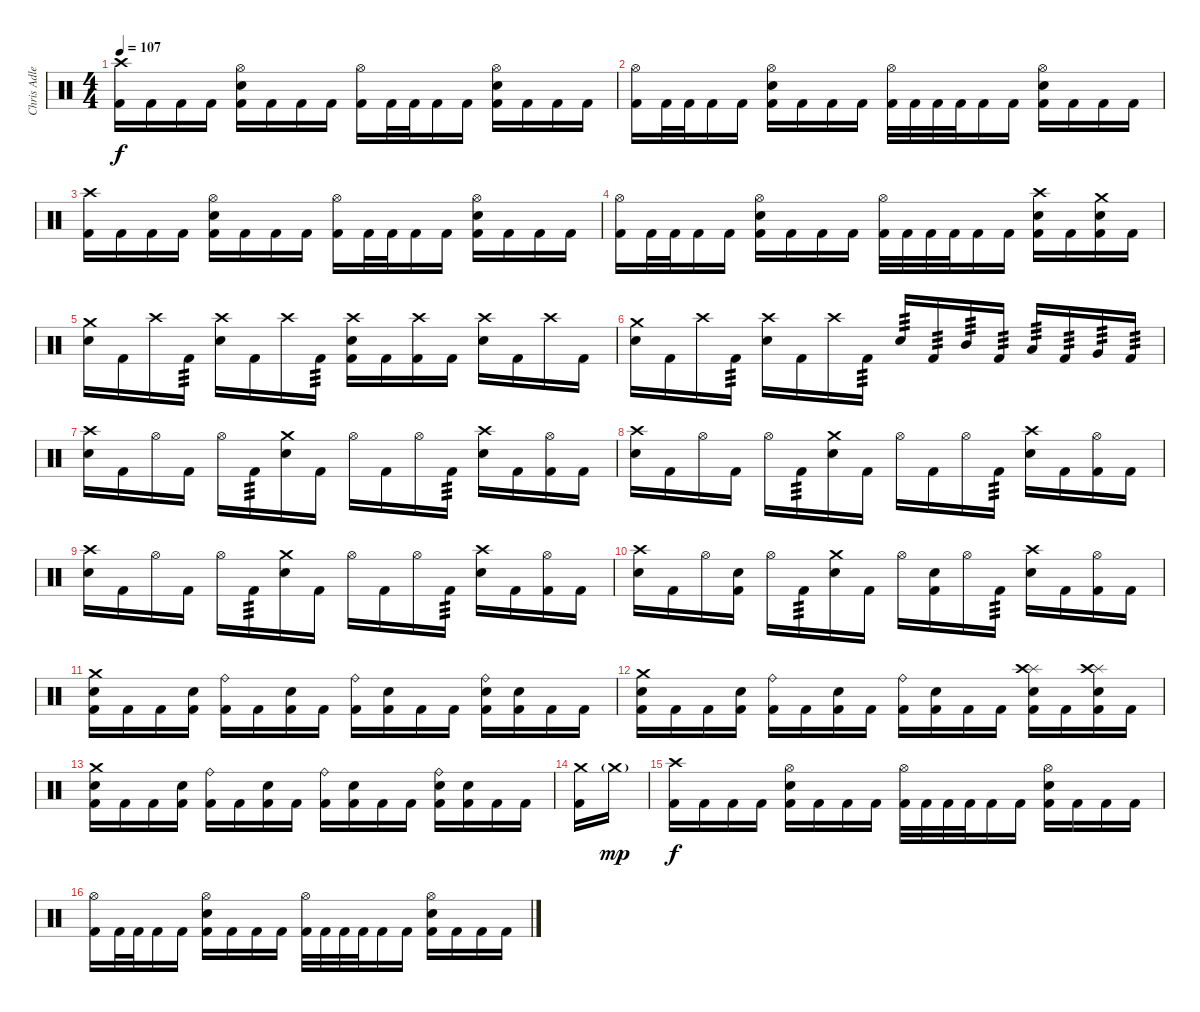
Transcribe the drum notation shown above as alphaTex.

\track ("Chris Adler" "Chris Adle") {instrument percussion}
\staff {score}
\articulation defaults
\ts (4 4)
\tempo 107
\clef neutral
\ks c
("Kick (hit) 2" "Crash high (hit)").16{dy f} "Kick (hit) 2".16 "Kick (hit) 2".16 "Kick (hit) 2".16 ("Kick (hit) 2" "Electric Snare (hit)" "Hi-Hat (open)").16 "Kick (hit) 2".16 "Kick (hit) 2".16 "Kick (hit) 2".16 ("Kick (hit) 2" "Hi-Hat (open)").16 "Kick (hit) 2".32 "Kick (hit) 2".32 "Kick (hit) 2".16 "Kick (hit) 2".16 ("Kick (hit) 2" "Electric Snare (hit)" "Hi-Hat (open)").16 "Kick (hit) 2".16 "Kick (hit) 2".16 "Kick (hit) 2".16 |
("Kick (hit) 2" "Hi-Hat (open)").16 "Kick (hit) 2".32 "Kick (hit) 2".32 "Kick (hit) 2".16 "Kick (hit) 2".16 ("Kick (hit) 2" "Electric Snare (hit)" "Hi-Hat (open)").16 "Kick (hit) 2".16 "Kick (hit) 2".16 "Kick (hit) 2".16 ("Kick (hit) 2" "Hi-Hat (open)").32 "Kick (hit) 2".32 "Kick (hit) 2".32 "Kick (hit) 2".32 "Kick (hit) 2".16 "Kick (hit) 2".16 ("Kick (hit) 2" "Electric Snare (hit)" "Hi-Hat (open)").16 "Kick (hit) 2".16 "Kick (hit) 2".16 "Kick (hit) 2".16 |
("Kick (hit) 2" "Crash high (hit)").16 "Kick (hit) 2".16 "Kick (hit) 2".16 "Kick (hit) 2".16 ("Kick (hit) 2" "Electric Snare (hit)" "Hi-Hat (open)").16 "Kick (hit) 2".16 "Kick (hit) 2".16 "Kick (hit) 2".16 ("Kick (hit) 2" "Hi-Hat (open)").16 "Kick (hit) 2".32 "Kick (hit) 2".32 "Kick (hit) 2".16 "Kick (hit) 2".16 ("Kick (hit) 2" "Electric Snare (hit)" "Hi-Hat (open)").16 "Kick (hit) 2".16 "Kick (hit) 2".16 "Kick (hit) 2".16 |
("Kick (hit) 2" "Hi-Hat (open)").16 "Kick (hit) 2".32 "Kick (hit) 2".32 "Kick (hit) 2".16 "Kick (hit) 2".16 ("Kick (hit) 2" "Electric Snare (hit)" "Hi-Hat (open)").16 "Kick (hit) 2".16 "Kick (hit) 2".16 "Kick (hit) 2".16 ("Kick (hit) 2" "Hi-Hat (open)").32 "Kick (hit) 2".32 "Kick (hit) 2".32 "Kick (hit) 2".32 "Kick (hit) 2".16 "Kick (hit) 2".16 ("Kick (hit) 2" "Electric Snare (hit)" "Crash high (hit)").16 "Kick (hit) 2".16 ("Kick (hit) 2" "Electric Snare (hit)" "Crash medium (hit)").16 "Kick (hit) 2".16 |
("Electric Snare (hit)" "Crash medium (hit)").16 "Kick (hit) 2".16 "Crash high (hit)".16 "Kick (hit) 2".16{tp 3} ("Electric Snare (hit)" "Crash high (hit)").16 "Kick (hit) 2".16 "Crash high (hit)".16 "Kick (hit) 2".16{tp 3} ("Kick (hit) 2" "Electric Snare (hit)" "Crash high (hit)").16 "Kick (hit) 2".16 ("Kick (hit) 2" "Crash high (hit)").16 "Kick (hit) 2".16 ("Electric Snare (hit)" "Crash high (hit)").16 "Kick (hit) 2".16 "Crash high (hit)".16 "Kick (hit) 2".16 |
("Electric Snare (hit)" "Crash medium (hit)").16 "Kick (hit) 2".16 "Crash high (hit)".16 "Kick (hit) 2".16{tp 3} ("Electric Snare (hit)" "Crash high (hit)").16 "Kick (hit) 2".16 "Crash high (hit)".16 "Kick (hit) 2".16{tp 3} "Electric Snare (hit)".16{tp 3} "Kick (hit) 2".16{tp 3} "Mid Tom (hit)".16{tp 3} "Kick (hit) 2".16{tp 3} "Low Tom (hit)".16{tp 3} "Kick (hit) 2".16{tp 3} "Very Low Tom (hit)".16{tp 3} "Kick (hit) 2".16{tp 3} |
("Electric Snare (hit)" "Crash high (hit)").16 "Kick (hit) 2".16 "Hi-Hat (open)".16 "Kick (hit) 2".16 "Hi-Hat (open)".16 "Kick (hit) 2".16{tp 3} ("Electric Snare (hit)" "Crash medium (hit)").16 "Kick (hit) 2".16 "Hi-Hat (open)".16 "Kick (hit) 2".16 "Hi-Hat (open)".16 "Kick (hit) 2".16{tp 3} ("Electric Snare (hit)" "Crash high (hit)").16 "Kick (hit) 2".16 ("Kick (hit) 2" "Hi-Hat (open)").16 "Kick (hit) 2".16 |
("Electric Snare (hit)" "Crash high (hit)").16 "Kick (hit) 2".16 "Hi-Hat (open)".16 "Kick (hit) 2".16 "Hi-Hat (open)".16 "Kick (hit) 2".16{tp 3} ("Electric Snare (hit)" "Crash medium (hit)").16 "Kick (hit) 2".16 "Hi-Hat (open)".16 "Kick (hit) 2".16 "Hi-Hat (open)".16 "Kick (hit) 2".16{tp 3} ("Electric Snare (hit)" "Crash high (hit)").16 "Kick (hit) 2".16 ("Kick (hit) 2" "Hi-Hat (open)").16 "Kick (hit) 2".16 |
("Electric Snare (hit)" "Crash high (hit)").16 "Kick (hit) 2".16 "Hi-Hat (open)".16 "Kick (hit) 2".16 "Hi-Hat (open)".16 "Kick (hit) 2".16{tp 3} ("Electric Snare (hit)" "Crash medium (hit)").16 "Kick (hit) 2".16 "Hi-Hat (open)".16 "Kick (hit) 2".16 "Hi-Hat (open)".16 "Kick (hit) 2".16{tp 3} ("Electric Snare (hit)" "Crash high (hit)").16 "Kick (hit) 2".16 ("Kick (hit) 2" "Hi-Hat (open)").16 "Kick (hit) 2".16 |
("Electric Snare (hit)" "Crash high (hit)").16 "Kick (hit) 2".16 "Hi-Hat (open)".16 ("Kick (hit) 2" "Electric Snare (hit)").16 "Hi-Hat (open)".16 "Kick (hit) 2".16{tp 3} ("Electric Snare (hit)" "Crash medium (hit)").16 "Kick (hit) 2".16 "Hi-Hat (open)".16 ("Kick (hit) 2" "Electric Snare (hit)").16 "Hi-Hat (open)".16 "Kick (hit) 2".16{tp 3} ("Electric Snare (hit)" "Crash high (hit)").16 "Kick (hit) 2".16 ("Kick (hit) 2" "Hi-Hat (open)").16 "Kick (hit) 2".16 |
("Kick (hit) 2" "Electric Snare (hit)" "Crash medium (hit)").16 "Kick (hit) 2".16 "Kick (hit) 2".16 ("Kick (hit) 2" "Electric Snare (hit)").16 ("Kick (hit) 2" "Ride (bell)").16 "Kick (hit) 2".16 ("Kick (hit) 2" "Electric Snare (hit)").16 "Kick (hit) 2".16 ("Kick (hit) 2" "Ride (bell)").16 ("Kick (hit) 2" "Electric Snare (hit)").16 "Kick (hit) 2".16 "Kick (hit) 2".16 ("Kick (hit) 2" "Electric Snare (hit)" "Ride (bell)").16 ("Kick (hit) 2" "Electric Snare (hit)").16 "Kick (hit) 2".16 "Kick (hit) 2".16 |
("Kick (hit) 2" "Electric Snare (hit)" "Crash medium (hit)").16 "Kick (hit) 2".16 "Kick (hit) 2".16 ("Kick (hit) 2" "Electric Snare (hit)").16 ("Kick (hit) 2" "Ride (bell)").16 "Kick (hit) 2".16 ("Kick (hit) 2" "Electric Snare (hit)").16 "Kick (hit) 2".16 ("Kick (hit) 2" "Ride (bell)").16 ("Kick (hit) 2" "Electric Snare (hit)").16 "Kick (hit) 2".16 "Kick (hit) 2".16 ("Kick (hit) 2" "Electric Snare (hit)" "Splash (hit)" "Crash high (hit)").16 "Kick (hit) 2".16 ("Kick (hit) 2" "Electric Snare (hit)" "Splash (hit)" "Crash high (hit)").16 "Kick (hit) 2".16 |
("Kick (hit) 2" "Electric Snare (hit)" "Crash medium (hit)").16 "Kick (hit) 2".16 "Kick (hit) 2".16 ("Kick (hit) 2" "Electric Snare (hit)").16 ("Kick (hit) 2" "Ride (bell)").16 "Kick (hit) 2".16 ("Kick (hit) 2" "Electric Snare (hit)").16 "Kick (hit) 2".16 ("Kick (hit) 2" "Ride (bell)").16 ("Kick (hit) 2" "Electric Snare (hit)").16 "Kick (hit) 2".16 "Kick (hit) 2".16 ("Kick (hit) 2" "Electric Snare (hit)" "Ride (bell)").16 ("Kick (hit) 2" "Electric Snare (hit)").16 "Kick (hit) 2".16 "Kick (hit) 2".16 |
("Kick (hit) 2" "Crash medium (hit)").16 "Crash medium (hit)"{g}.16{dy mp} |
("Kick (hit) 2" "Crash high (hit)").16{dy f} "Kick (hit) 2".16 "Kick (hit) 2".16 "Kick (hit) 2".16 ("Kick (hit) 2" "Electric Snare (hit)" "Hi-Hat (open)").16 "Kick (hit) 2".16 "Kick (hit) 2".16 "Kick (hit) 2".16 ("Kick (hit) 2" "Hi-Hat (open)").32 "Kick (hit) 2".32 "Kick (hit) 2".32 "Kick (hit) 2".32 "Kick (hit) 2".16 "Kick (hit) 2".16 ("Kick (hit) 2" "Electric Snare (hit)" "Hi-Hat (open)").16 "Kick (hit) 2".16 "Kick (hit) 2".16 "Kick (hit) 2".16 |
("Kick (hit) 2" "Hi-Hat (open)").16 "Kick (hit) 2".32 "Kick (hit) 2".32 "Kick (hit) 2".16 "Kick (hit) 2".16 ("Kick (hit) 2" "Electric Snare (hit)" "Hi-Hat (open)").16 "Kick (hit) 2".16 "Kick (hit) 2".16 "Kick (hit) 2".16 ("Kick (hit) 2" "Hi-Hat (open)").32 "Kick (hit) 2".32 "Kick (hit) 2".32 "Kick (hit) 2".32 "Kick (hit) 2".16 "Kick (hit) 2".16 ("Kick (hit) 2" "Electric Snare (hit)" "Hi-Hat (open)").16 "Kick (hit) 2".16 "Kick (hit) 2".16 "Kick (hit) 2".16
